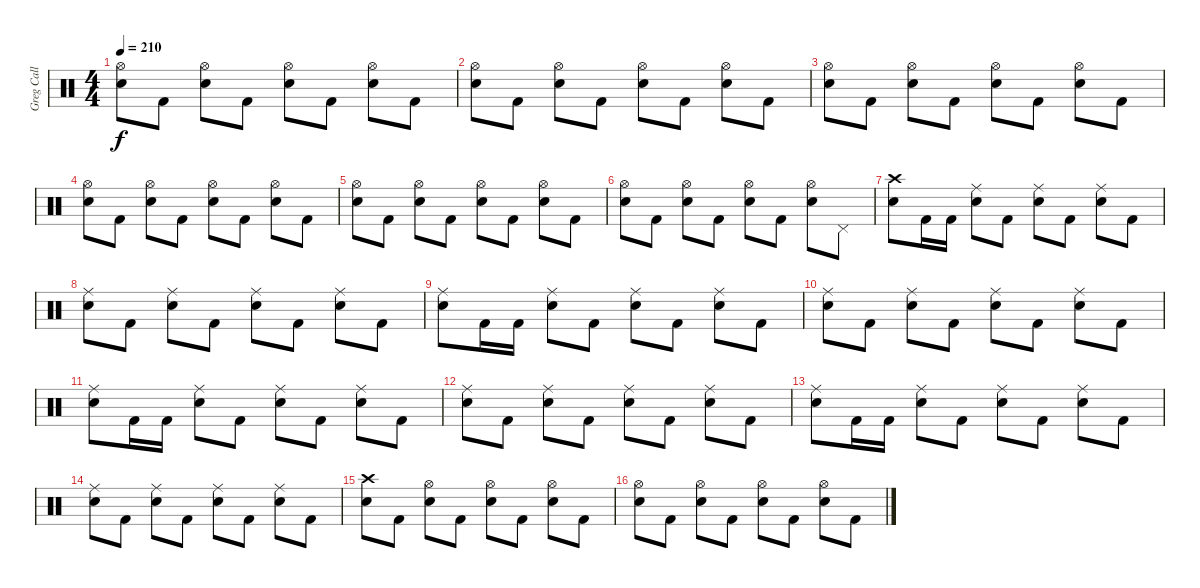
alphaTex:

\track ("Greg Call (Drums)" "Greg Call ") {instrument percussion}
\staff {score}
\articulation defaults
\ts (4 4)
\tempo 210
\clef neutral
\ks c
("Hi-Hat (open)" "Electric Snare (hit)").8{dy f} "Kick (hit) 2".8 ("Hi-Hat (open)" "Electric Snare (hit)").8 "Kick (hit) 2".8 ("Hi-Hat (open)" "Electric Snare (hit)").8 "Kick (hit) 2".8 ("Hi-Hat (open)" "Electric Snare (hit)").8 "Kick (hit) 2".8 |
("Hi-Hat (open)" "Electric Snare (hit)").8 "Kick (hit) 2".8 ("Hi-Hat (open)" "Electric Snare (hit)").8 "Kick (hit) 2".8 ("Hi-Hat (open)" "Electric Snare (hit)").8 "Kick (hit) 2".8 ("Hi-Hat (open)" "Electric Snare (hit)").8 "Kick (hit) 2".8 |
("Hi-Hat (open)" "Electric Snare (hit)").8 "Kick (hit) 2".8 ("Hi-Hat (open)" "Electric Snare (hit)").8 "Kick (hit) 2".8 ("Hi-Hat (open)" "Electric Snare (hit)").8 "Kick (hit) 2".8 ("Hi-Hat (open)" "Electric Snare (hit)").8 "Kick (hit) 2".8 |
("Hi-Hat (open)" "Electric Snare (hit)").8 "Kick (hit) 2".8 ("Hi-Hat (open)" "Electric Snare (hit)").8 "Kick (hit) 2".8 ("Hi-Hat (open)" "Electric Snare (hit)").8 "Kick (hit) 2".8 ("Hi-Hat (open)" "Electric Snare (hit)").8 "Kick (hit) 2".8 |
("Hi-Hat (open)" "Electric Snare (hit)").8 "Kick (hit) 2".8 ("Hi-Hat (open)" "Electric Snare (hit)").8 "Kick (hit) 2".8 ("Hi-Hat (open)" "Electric Snare (hit)").8 "Kick (hit) 2".8 ("Hi-Hat (open)" "Electric Snare (hit)").8 "Kick (hit) 2".8 |
("Hi-Hat (open)" "Electric Snare (hit)").8 "Kick (hit) 2".8 ("Hi-Hat (open)" "Electric Snare (hit)").8 "Kick (hit) 2".8 ("Hi-Hat (open)" "Electric Snare (hit)").8 "Kick (hit) 2".8 ("Hi-Hat (open)" "Electric Snare (hit)").8 "Pedal Hi-Hat (hit)".8 |
("Crash high (hit)" "Electric Snare (hit)").8 "Kick (hit) 2".16 "Kick (hit) 2".16 ("Ride (middle)" "Electric Snare (hit)").8 "Kick (hit) 2".8 ("Ride (middle)" "Electric Snare (hit)").8 "Kick (hit) 2".8 ("Ride (middle)" "Electric Snare (hit)").8 "Kick (hit) 2".8 |
("Ride (middle)" "Electric Snare (hit)").8 "Kick (hit) 2".8 ("Ride (middle)" "Electric Snare (hit)").8 "Kick (hit) 2".8 ("Ride (middle)" "Electric Snare (hit)").8 "Kick (hit) 2".8 ("Ride (middle)" "Electric Snare (hit)").8 "Kick (hit) 2".8 |
("Ride (middle)" "Electric Snare (hit)").8 "Kick (hit) 2".16 "Kick (hit) 2".16 ("Ride (middle)" "Electric Snare (hit)").8 "Kick (hit) 2".8 ("Ride (middle)" "Electric Snare (hit)").8 "Kick (hit) 2".8 ("Ride (middle)" "Electric Snare (hit)").8 "Kick (hit) 2".8 |
("Ride (middle)" "Electric Snare (hit)").8 "Kick (hit) 2".8 ("Ride (middle)" "Electric Snare (hit)").8 "Kick (hit) 2".8 ("Ride (middle)" "Electric Snare (hit)").8 "Kick (hit) 2".8 ("Ride (middle)" "Electric Snare (hit)").8 "Kick (hit) 2".8 |
("Ride (middle)" "Electric Snare (hit)").8 "Kick (hit) 2".16 "Kick (hit) 2".16 ("Ride (middle)" "Electric Snare (hit)").8 "Kick (hit) 2".8 ("Ride (middle)" "Electric Snare (hit)").8 "Kick (hit) 2".8 ("Ride (middle)" "Electric Snare (hit)").8 "Kick (hit) 2".8 |
("Ride (middle)" "Electric Snare (hit)").8 "Kick (hit) 2".8 ("Ride (middle)" "Electric Snare (hit)").8 "Kick (hit) 2".8 ("Ride (middle)" "Electric Snare (hit)").8 "Kick (hit) 2".8 ("Ride (middle)" "Electric Snare (hit)").8 "Kick (hit) 2".8 |
("Ride (middle)" "Electric Snare (hit)").8 "Kick (hit) 2".16 "Kick (hit) 2".16 ("Ride (middle)" "Electric Snare (hit)").8 "Kick (hit) 2".8 ("Ride (middle)" "Electric Snare (hit)").8 "Kick (hit) 2".8 ("Ride (middle)" "Electric Snare (hit)").8 "Kick (hit) 2".8 |
("Ride (middle)" "Electric Snare (hit)").8 "Kick (hit) 2".8 ("Ride (middle)" "Electric Snare (hit)").8 "Kick (hit) 2".8 ("Ride (middle)" "Electric Snare (hit)").8{volume 9} "Kick (hit) 2".8 ("Ride (middle)" "Electric Snare (hit)").8 "Kick (hit) 2".8 |
("Crash high (hit)" "Electric Snare (hit)").8{volume 16} "Kick (hit) 2".8 ("Hi-Hat (open)" "Electric Snare (hit)").8 "Kick (hit) 2".8 ("Hi-Hat (open)" "Electric Snare (hit)").8 "Kick (hit) 2".8 ("Hi-Hat (open)" "Electric Snare (hit)").8 "Kick (hit) 2".8 |
("Hi-Hat (open)" "Electric Snare (hit)").8 "Kick (hit) 2".8 ("Hi-Hat (open)" "Electric Snare (hit)").8 "Kick (hit) 2".8 ("Hi-Hat (open)" "Electric Snare (hit)").8 "Kick (hit) 2".8 ("Hi-Hat (open)" "Electric Snare (hit)").8 "Kick (hit) 2".8
